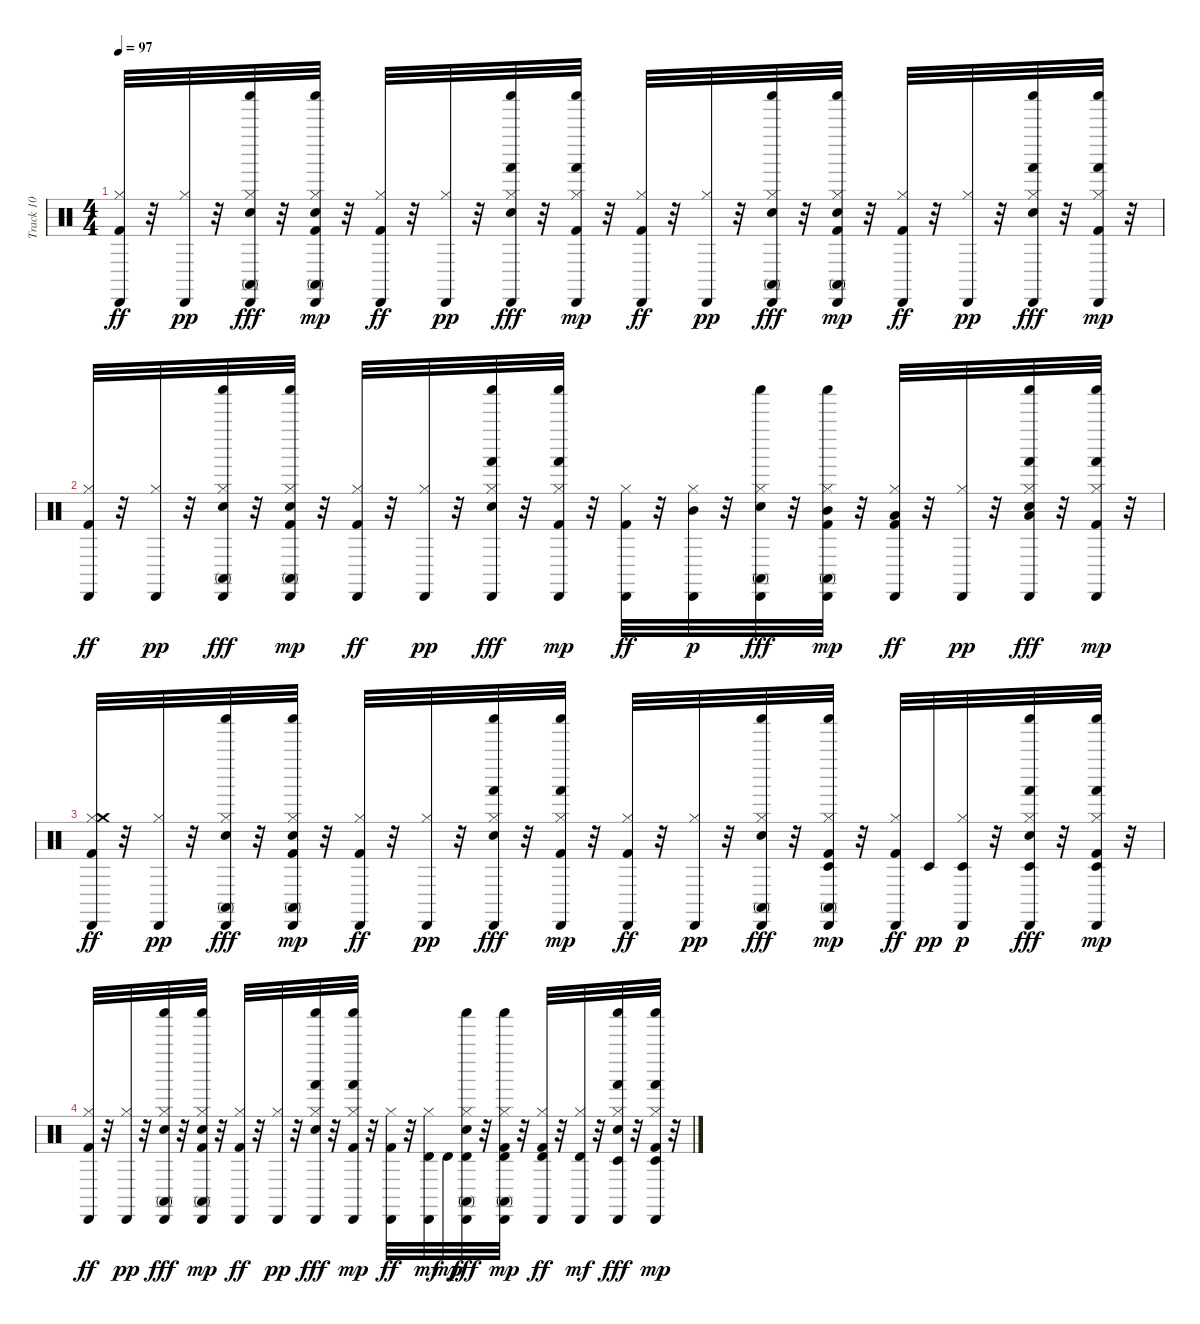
\track ("Track 10" "Track 10") {instrument percussion}
\staff {score}
\articulation defaults
\ts (4 4)
\tempo 97
\clef neutral
\ks c
("Hi-Hat (closed)" "Cabasa (hit)" "Kick (hit) 2").32{dy ff} r.32 ("Hi-Hat (closed)" "Cabasa (hit)").32{dy pp} r.32 ("Hi-Hat (closed)" "Shaker (hit)" "Conga high (mute)" "Cabasa (hit)" "Snare (hit) 2").32{dy fff} r.32 ("Hi-Hat (closed)" "Shaker (hit)" "Conga high (mute)" "Cabasa (hit)" "Kick (hit) 2" "Snare (hit) 2").32{dy mp} r.32 ("Hi-Hat (closed)" "Cabasa (hit)" "Kick (hit) 2").32{dy ff} r.32 ("Hi-Hat (closed)" "Cabasa (hit)").32{dy pp} r.32 ("Hi-Hat (closed)" "Shaker (hit)" "Hand (hit)" "Cabasa (hit)" "Snare (hit) 2").32{dy fff} r.32 ("Hi-Hat (closed)" "Shaker (hit)" "Hand (hit)" "Cabasa (hit)" "Kick (hit) 2").32{dy mp} r.32 ("Hi-Hat (closed)" "Cabasa (hit)" "Kick (hit) 2").32{dy ff} r.32 ("Hi-Hat (closed)" "Cabasa (hit)").32{dy pp} r.32 ("Hi-Hat (closed)" "Shaker (hit)" "Conga high (mute)" "Cabasa (hit)" "Snare (hit) 2").32{dy fff} r.32 ("Hi-Hat (closed)" "Shaker (hit)" "Conga high (mute)" "Cabasa (hit)" "Kick (hit) 2" "Snare (hit) 2").32{dy mp} r.32 ("Hi-Hat (closed)" "Cabasa (hit)" "Kick (hit) 2").32{dy ff} r.32 ("Hi-Hat (closed)" "Cabasa (hit)").32{dy pp} r.32 ("Hi-Hat (closed)" "Shaker (hit)" "Hand (hit)" "Cabasa (hit)" "Snare (hit) 2").32{dy fff} r.32 ("Hi-Hat (closed)" "Shaker (hit)" "Hand (hit)" "Cabasa (hit)" "Kick (hit) 2").32{dy mp} r.32 |
("Hi-Hat (closed)" "Cabasa (hit)" "Kick (hit) 2").32{dy ff} r.32 ("Hi-Hat (closed)" "Cabasa (hit)").32{dy pp} r.32 ("Hi-Hat (closed)" "Shaker (hit)" "Conga high (mute)" "Cabasa (hit)" "Snare (hit) 2").32{dy fff} r.32 ("Hi-Hat (closed)" "Shaker (hit)" "Conga high (mute)" "Cabasa (hit)" "Snare (hit) 2" "Kick (hit) 2").32{dy mp} r.32 ("Hi-Hat (closed)" "Cabasa (hit)" "Kick (hit) 2").32{dy ff} r.32 ("Hi-Hat (closed)" "Cabasa (hit)").32{dy pp} r.32 ("Hi-Hat (closed)" "Shaker (hit)" "Hand (hit)" "Cabasa (hit)" "Snare (hit) 2").32{dy fff} r.32 ("Hi-Hat (closed)" "Shaker (hit)" "Hand (hit)" "Cabasa (hit)" "Kick (hit) 2").32{dy mp} r.32 ("Hi-Hat (closed)" "Cabasa (hit)" "Kick (hit) 2").32{dy ff} r.32 ("Hi-Hat (closed)" "Cabasa (hit)" "Mid Tom (hit)").32{dy p} r.32 ("Hi-Hat (closed)" "Shaker (hit)" "Conga high (mute)" "Cabasa (hit)" "Snare (hit) 2").32{dy fff} r.32 ("Hi-Hat (closed)" "Shaker (hit)" "Conga high (mute)" "Cabasa (hit)" "Mid Tom (hit)" "Kick (hit) 2").32{dy mp} r.32 ("Hi-Hat (closed)" "Cabasa (hit)" "Low Tom (hit)" "Kick (hit) 2").32{dy ff} r.32 ("Hi-Hat (closed)" "Cabasa (hit)").32{dy pp} r.32 ("Hi-Hat (closed)" "Shaker (hit)" "Hand (hit)" "Cabasa (hit)" "Low Tom (hit)" "Snare (hit) 2").32{dy fff} r.32 ("Hi-Hat (closed)" "Shaker (hit)" "Hand (hit)" "Cabasa (hit)" "Kick (hit) 2").32{dy mp} r.32 |
("Hi-Hat (closed)" "Cabasa (hit)" "Crash medium (hit)" "Kick (hit) 2").32{dy ff} r.32 ("Hi-Hat (closed)" "Cabasa (hit)").32{dy pp} r.32 ("Hi-Hat (closed)" "Shaker (hit)" "Conga high (mute)" "Cabasa (hit)" "Snare (hit) 2").32{dy fff} r.32 ("Hi-Hat (closed)" "Shaker (hit)" "Conga high (mute)" "Cabasa (hit)" "Kick (hit) 2" "Snare (hit) 2").32{dy mp} r.32 ("Hi-Hat (closed)" "Cabasa (hit)" "Kick (hit) 2").32{dy ff} r.32 ("Hi-Hat (closed)" "Cabasa (hit)").32{dy pp} r.32 ("Hi-Hat (closed)" "Shaker (hit)" "Hand (hit)" "Cabasa (hit)" "Snare (hit) 2").32{dy fff} r.32 ("Hi-Hat (closed)" "Shaker (hit)" "Hand (hit)" "Cabasa (hit)" "Kick (hit) 2").32{dy mp} r.32 ("Hi-Hat (closed)" "Cabasa (hit)" "Kick (hit) 2").32{dy ff} r.32 ("Hi-Hat (closed)" "Cabasa (hit)").32{dy pp} r.32 ("Hi-Hat (closed)" "Shaker (hit)" "Conga high (mute)" "Cabasa (hit)" "Snare (hit) 2").32{dy fff} r.32 ("Hi-Hat (closed)" "Shaker (hit)" "Conga high (mute)" "Cabasa (hit)" "Timbale low (hit)" "Kick (hit) 2").32{dy mp} r.32 ("Hi-Hat (closed)" "Cabasa (hit)" "Kick (hit) 2").32{dy ff} "Timbale low (hit)".32{dy pp} ("Hi-Hat (closed)" "Cabasa (hit)" "Timbale low (hit)").32{dy p} r.32 ("Hi-Hat (closed)" "Shaker (hit)" "Hand (hit)" "Cabasa (hit)" "Timbale low (hit)" "Snare (hit) 2").32{dy fff} r.32 ("Hi-Hat (closed)" "Shaker (hit)" "Hand (hit)" "Cabasa (hit)" "Timbale low (hit)" "Kick (hit) 2").32{dy mp} r.32 |
("Hi-Hat (closed)" "Cabasa (hit)" "Kick (hit) 2").32{dy ff} r.32 ("Hi-Hat (closed)" "Cabasa (hit)").32{dy pp} r.32 ("Hi-Hat (closed)" "Shaker (hit)" "Conga high (mute)" "Cabasa (hit)" "Snare (hit) 2").32{dy fff} r.32 ("Hi-Hat (closed)" "Shaker (hit)" "Conga high (mute)" "Cabasa (hit)" "Kick (hit) 2" "Snare (hit) 2").32{dy mp} r.32 ("Hi-Hat (closed)" "Cabasa (hit)" "Kick (hit) 2").32{dy ff} r.32 ("Hi-Hat (closed)" "Cabasa (hit)").32{dy pp} r.32 ("Hi-Hat (closed)" "Shaker (hit)" "Hand (hit)" "Cabasa (hit)" "Snare (hit) 2").32{dy fff} r.32 ("Hi-Hat (closed)" "Shaker (hit)" "Hand (hit)" "Cabasa (hit)" "Kick (hit) 2").32{dy mp} r.32 ("Hi-Hat (closed)" "Cabasa (hit)" "Kick (hit) 2").32{dy ff} r.32 ("Hi-Hat (closed)" "Cabasa (hit)" "Timbale high (hit)").32{dy mf} "Timbale high (hit)".32{dy mp} ("Hi-Hat (closed)" "Shaker (hit)" "Conga high (mute)" "Cabasa (hit)" "Timbale high (hit)" "Snare (hit) 2").32{dy fff} r.32 ("Hi-Hat (closed)" "Shaker (hit)" "Conga high (mute)" "Cabasa (hit)" "Timbale high (hit)" "Kick (hit) 2").32{dy mp} r.32 ("Hi-Hat (closed)" "Cabasa (hit)" "Timbale high (hit)" "Kick (hit) 2").32{dy ff} r.32 ("Hi-Hat (closed)" "Cabasa (hit)" "Timbale high (hit)").32{dy mf} r.32 ("Hi-Hat (closed)" "Shaker (hit)" "Hand (hit)" "Cabasa (hit)" "Timbale low (hit)" "Snare (hit) 2").32{dy fff} r.32 ("Hi-Hat (closed)" "Shaker (hit)" "Hand (hit)" "Cabasa (hit)" "Timbale low (hit)" "Kick (hit) 2").32{dy mp} r.32
